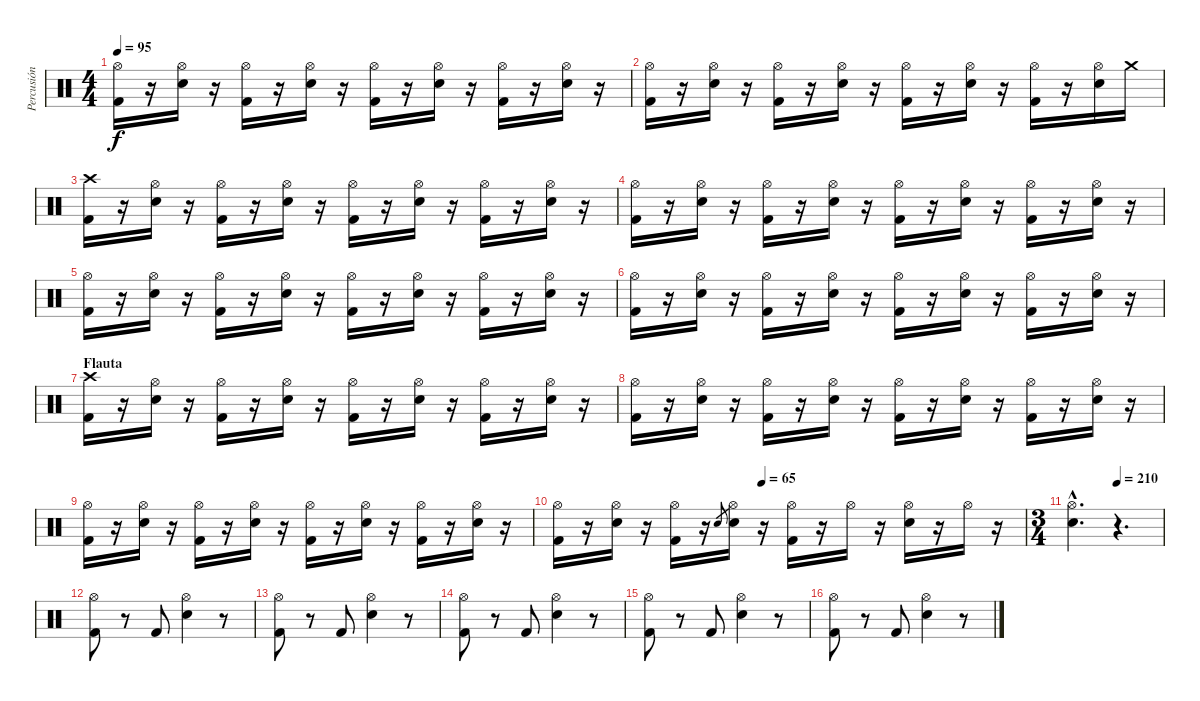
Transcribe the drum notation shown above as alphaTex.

\track ("Percusión" "Percusión") {instrument percussion}
\staff {score}
\articulation defaults
\ts (4 4)
\tempo 95
\clef neutral
\ks c
("Kick (hit) 2" "Hi-Hat (open)").16{dy f} r.16 ("Electric Snare (hit)" "Hi-Hat (open)").16 r.16 ("Kick (hit) 2" "Hi-Hat (open)").16 r.16 ("Electric Snare (hit)" "Hi-Hat (open)").16 r.16 ("Kick (hit) 2" "Hi-Hat (open)").16 r.16 ("Electric Snare (hit)" "Hi-Hat (open)").16 r.16 ("Kick (hit) 2" "Hi-Hat (open)").16 r.16 ("Electric Snare (hit)" "Hi-Hat (open)").16 r.16 |
("Kick (hit) 2" "Hi-Hat (open)").16 r.16 ("Electric Snare (hit)" "Hi-Hat (open)").16 r.16 ("Kick (hit) 2" "Hi-Hat (open)").16 r.16 ("Electric Snare (hit)" "Hi-Hat (open)").16 r.16 ("Kick (hit) 2" "Hi-Hat (open)").16 r.16 ("Electric Snare (hit)" "Hi-Hat (open)").16 r.16 ("Kick (hit) 2" "Hi-Hat (open)").16 r.16 ("Electric Snare (hit)" "Hi-Hat (open)").16 "Crash medium (hit)".16 |
("Kick (hit) 2" "Crash high (hit)").16 r.16 ("Electric Snare (hit)" "Hi-Hat (open)").16 r.16 ("Kick (hit) 2" "Hi-Hat (open)").16 r.16 ("Electric Snare (hit)" "Hi-Hat (open)").16 r.16 ("Kick (hit) 2" "Hi-Hat (open)").16 r.16 ("Electric Snare (hit)" "Hi-Hat (open)").16 r.16 ("Kick (hit) 2" "Hi-Hat (open)").16 r.16 ("Electric Snare (hit)" "Hi-Hat (open)").16 r.16 |
("Kick (hit) 2" "Hi-Hat (open)").16 r.16 ("Electric Snare (hit)" "Hi-Hat (open)").16 r.16 ("Kick (hit) 2" "Hi-Hat (open)").16 r.16 ("Electric Snare (hit)" "Hi-Hat (open)").16 r.16 ("Kick (hit) 2" "Hi-Hat (open)").16 r.16 ("Electric Snare (hit)" "Hi-Hat (open)").16 r.16 ("Kick (hit) 2" "Hi-Hat (open)").16 r.16 ("Electric Snare (hit)" "Hi-Hat (open)").16 r.16 |
("Kick (hit) 2" "Hi-Hat (open)").16 r.16 ("Electric Snare (hit)" "Hi-Hat (open)").16 r.16 ("Kick (hit) 2" "Hi-Hat (open)").16 r.16 ("Electric Snare (hit)" "Hi-Hat (open)").16 r.16 ("Kick (hit) 2" "Hi-Hat (open)").16 r.16 ("Electric Snare (hit)" "Hi-Hat (open)").16 r.16 ("Kick (hit) 2" "Hi-Hat (open)").16 r.16 ("Electric Snare (hit)" "Hi-Hat (open)").16 r.16 |
("Kick (hit) 2" "Hi-Hat (open)").16 r.16 ("Electric Snare (hit)" "Hi-Hat (open)").16 r.16 ("Kick (hit) 2" "Hi-Hat (open)").16 r.16 ("Electric Snare (hit)" "Hi-Hat (open)").16 r.16 ("Kick (hit) 2" "Hi-Hat (open)").16 r.16 ("Electric Snare (hit)" "Hi-Hat (open)").16 r.16 ("Kick (hit) 2" "Hi-Hat (open)").16 r.16 ("Electric Snare (hit)" "Hi-Hat (open)").16 r.16 |
\section ("" "Flauta")
("Kick (hit) 2" "Crash high (hit)").16 r.16 ("Electric Snare (hit)" "Hi-Hat (open)").16 r.16 ("Kick (hit) 2" "Hi-Hat (open)").16 r.16 ("Electric Snare (hit)" "Hi-Hat (open)").16 r.16 ("Kick (hit) 2" "Hi-Hat (open)").16 r.16 ("Electric Snare (hit)" "Hi-Hat (open)").16 r.16 ("Kick (hit) 2" "Hi-Hat (open)").16 r.16 ("Electric Snare (hit)" "Hi-Hat (open)").16 r.16 |
("Kick (hit) 2" "Hi-Hat (open)").16 r.16 ("Electric Snare (hit)" "Hi-Hat (open)").16 r.16 ("Kick (hit) 2" "Hi-Hat (open)").16 r.16 ("Electric Snare (hit)" "Hi-Hat (open)").16 r.16 ("Kick (hit) 2" "Hi-Hat (open)").16 r.16 ("Electric Snare (hit)" "Hi-Hat (open)").16 r.16 ("Kick (hit) 2" "Hi-Hat (open)").16 r.16 ("Electric Snare (hit)" "Hi-Hat (open)").16 r.16 |
("Kick (hit) 2" "Hi-Hat (open)").16 r.16 ("Electric Snare (hit)" "Hi-Hat (open)").16 r.16 ("Kick (hit) 2" "Hi-Hat (open)").16 r.16 ("Electric Snare (hit)" "Hi-Hat (open)").16 r.16 ("Kick (hit) 2" "Hi-Hat (open)").16 r.16 ("Electric Snare (hit)" "Hi-Hat (open)").16 r.16 ("Kick (hit) 2" "Hi-Hat (open)").16 r.16 ("Electric Snare (hit)" "Hi-Hat (open)").16 r.16 |
\tempo (65 0.4375)
("Kick (hit) 2" "Hi-Hat (open)").16 r.16 ("Electric Snare (hit)" "Hi-Hat (open)").16 r.16 ("Kick (hit) 2" "Hi-Hat (open)").16 r.16 "Electric Snare (hit)".8{gr} ("Electric Snare (hit)" "Hi-Hat (open)").16 r.16 ("Kick (hit) 2" "Hi-Hat (open)").16 r.16 "Hi-Hat (open)".16 r.16 ("Electric Snare (hit)" "Hi-Hat (open)").16 r.16 "Hi-Hat (open)".16 r.16 |
\ts (3 4)
\tempo (210 0.5)
("Electric Snare (hit)"{hac} "Hi-Hat (open)"{hac}).4{d} r.4{d} |
("Kick (hit) 2" "Hi-Hat (open)").8 r.8 "Kick (hit) 2".8 ("Electric Snare (hit)" "Hi-Hat (open)").4 r.8 |
("Kick (hit) 2" "Hi-Hat (open)").8 r.8 "Kick (hit) 2".8 ("Electric Snare (hit)" "Hi-Hat (open)").4 r.8 |
("Kick (hit) 2" "Hi-Hat (open)").8 r.8 "Kick (hit) 2".8 ("Electric Snare (hit)" "Hi-Hat (open)").4 r.8 |
("Kick (hit) 2" "Hi-Hat (open)").8 r.8 "Kick (hit) 2".8 ("Electric Snare (hit)" "Hi-Hat (open)").4 r.8 |
("Kick (hit) 2" "Hi-Hat (open)").8 r.8 "Kick (hit) 2".8 ("Electric Snare (hit)" "Hi-Hat (open)").4 r.8
